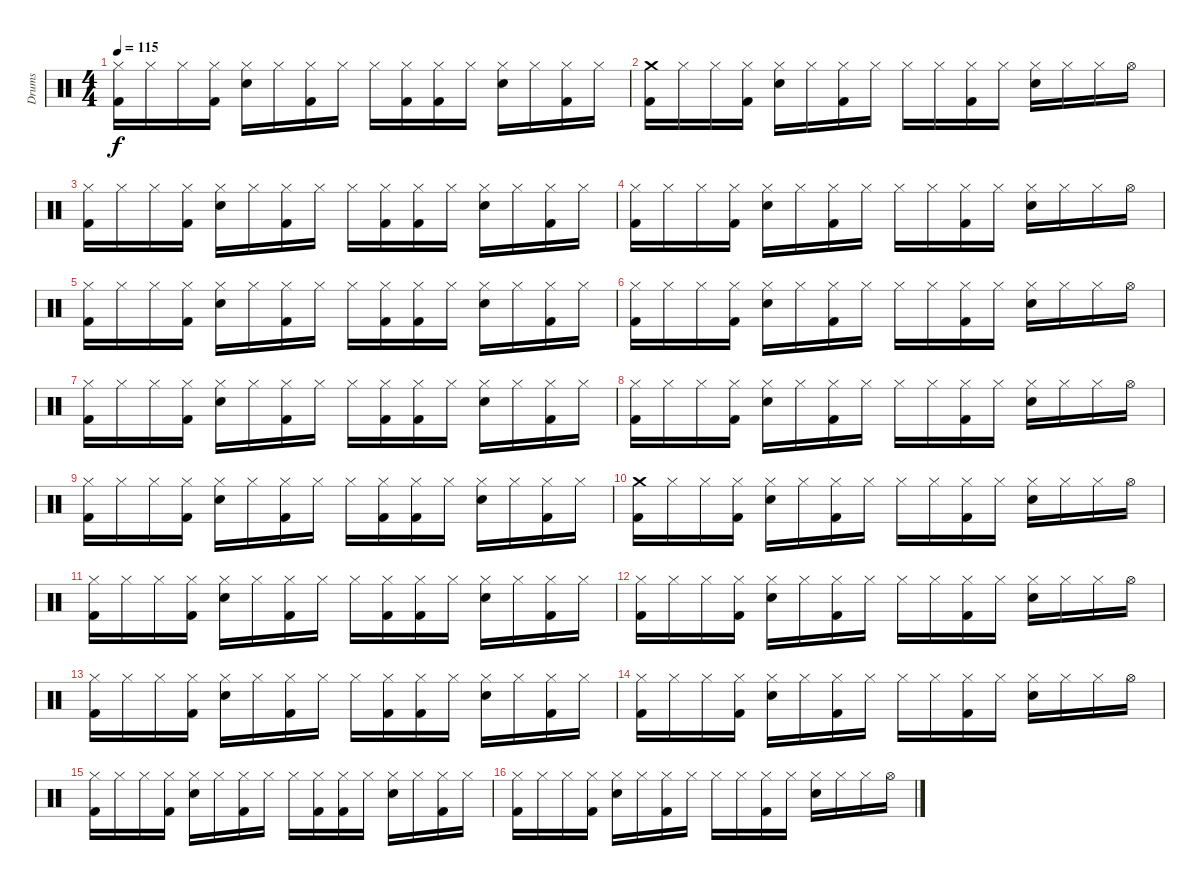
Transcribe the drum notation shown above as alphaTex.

\track ("Drums" "Drums") {instrument percussion}
\staff {score}
\articulation defaults
\ts (4 4)
\tempo 115
\clef neutral
\ks c
("Hi-Hat (closed)" "Kick (hit) 2").16{dy f} "Hi-Hat (closed)".16 "Hi-Hat (closed)".16 ("Hi-Hat (closed)" "Kick (hit) 2").16 ("Hi-Hat (closed)" "Electric Snare (hit)").16 "Hi-Hat (closed)".16 ("Hi-Hat (closed)" "Kick (hit) 2").16 "Hi-Hat (closed)".16 "Hi-Hat (closed)".16 ("Hi-Hat (closed)" "Kick (hit) 2").16 ("Hi-Hat (closed)" "Kick (hit) 2").16 "Hi-Hat (closed)".16 ("Hi-Hat (closed)" "Electric Snare (hit)").16 "Hi-Hat (closed)".16 ("Hi-Hat (closed)" "Kick (hit) 2").16 "Hi-Hat (closed)".16 |
("Crash medium (hit)" "Kick (hit) 2").16 "Hi-Hat (closed)".16 "Hi-Hat (closed)".16 ("Hi-Hat (closed)" "Kick (hit) 2").16 ("Hi-Hat (closed)" "Electric Snare (hit)").16 "Hi-Hat (closed)".16 ("Hi-Hat (closed)" "Kick (hit) 2").16 "Hi-Hat (closed)".16 "Hi-Hat (closed)".16 "Hi-Hat (closed)".16 ("Hi-Hat (closed)" "Kick (hit) 2").16 "Hi-Hat (closed)".16 ("Hi-Hat (closed)" "Electric Snare (hit)").16 "Hi-Hat (closed)".16 "Hi-Hat (closed)".16 "Hi-Hat (open)".16 |
("Hi-Hat (closed)" "Kick (hit) 2").16 "Hi-Hat (closed)".16 "Hi-Hat (closed)".16 ("Hi-Hat (closed)" "Kick (hit) 2").16 ("Hi-Hat (closed)" "Electric Snare (hit)").16 "Hi-Hat (closed)".16 ("Hi-Hat (closed)" "Kick (hit) 2").16 "Hi-Hat (closed)".16 "Hi-Hat (closed)".16 ("Hi-Hat (closed)" "Kick (hit) 2").16 ("Hi-Hat (closed)" "Kick (hit) 2").16 "Hi-Hat (closed)".16 ("Hi-Hat (closed)" "Electric Snare (hit)").16 "Hi-Hat (closed)".16 ("Hi-Hat (closed)" "Kick (hit) 2").16 "Hi-Hat (closed)".16 |
("Hi-Hat (closed)" "Kick (hit) 2").16 "Hi-Hat (closed)".16 "Hi-Hat (closed)".16 ("Hi-Hat (closed)" "Kick (hit) 2").16 ("Hi-Hat (closed)" "Electric Snare (hit)").16 "Hi-Hat (closed)".16 ("Hi-Hat (closed)" "Kick (hit) 2").16 "Hi-Hat (closed)".16 "Hi-Hat (closed)".16 "Hi-Hat (closed)".16 ("Hi-Hat (closed)" "Kick (hit) 2").16 "Hi-Hat (closed)".16 ("Hi-Hat (closed)" "Electric Snare (hit)").16 "Hi-Hat (closed)".16 "Hi-Hat (closed)".16 "Hi-Hat (open)".16 |
("Hi-Hat (closed)" "Kick (hit) 2").16 "Hi-Hat (closed)".16 "Hi-Hat (closed)".16 ("Hi-Hat (closed)" "Kick (hit) 2").16 ("Hi-Hat (closed)" "Electric Snare (hit)").16 "Hi-Hat (closed)".16 ("Hi-Hat (closed)" "Kick (hit) 2").16 "Hi-Hat (closed)".16 "Hi-Hat (closed)".16 ("Hi-Hat (closed)" "Kick (hit) 2").16 ("Hi-Hat (closed)" "Kick (hit) 2").16 "Hi-Hat (closed)".16 ("Hi-Hat (closed)" "Electric Snare (hit)").16 "Hi-Hat (closed)".16 ("Hi-Hat (closed)" "Kick (hit) 2").16 "Hi-Hat (closed)".16 |
("Hi-Hat (closed)" "Kick (hit) 2").16 "Hi-Hat (closed)".16 "Hi-Hat (closed)".16 ("Hi-Hat (closed)" "Kick (hit) 2").16 ("Hi-Hat (closed)" "Electric Snare (hit)").16 "Hi-Hat (closed)".16 ("Hi-Hat (closed)" "Kick (hit) 2").16 "Hi-Hat (closed)".16 "Hi-Hat (closed)".16 "Hi-Hat (closed)".16 ("Hi-Hat (closed)" "Kick (hit) 2").16 "Hi-Hat (closed)".16 ("Hi-Hat (closed)" "Electric Snare (hit)").16 "Hi-Hat (closed)".16 "Hi-Hat (closed)".16 "Hi-Hat (open)".16 |
("Hi-Hat (closed)" "Kick (hit) 2").16 "Hi-Hat (closed)".16 "Hi-Hat (closed)".16 ("Hi-Hat (closed)" "Kick (hit) 2").16 ("Hi-Hat (closed)" "Electric Snare (hit)").16 "Hi-Hat (closed)".16 ("Hi-Hat (closed)" "Kick (hit) 2").16 "Hi-Hat (closed)".16 "Hi-Hat (closed)".16 ("Hi-Hat (closed)" "Kick (hit) 2").16 ("Hi-Hat (closed)" "Kick (hit) 2").16 "Hi-Hat (closed)".16 ("Hi-Hat (closed)" "Electric Snare (hit)").16 "Hi-Hat (closed)".16 ("Hi-Hat (closed)" "Kick (hit) 2").16 "Hi-Hat (closed)".16 |
("Hi-Hat (closed)" "Kick (hit) 2").16 "Hi-Hat (closed)".16 "Hi-Hat (closed)".16 ("Hi-Hat (closed)" "Kick (hit) 2").16 ("Hi-Hat (closed)" "Electric Snare (hit)").16 "Hi-Hat (closed)".16 ("Hi-Hat (closed)" "Kick (hit) 2").16 "Hi-Hat (closed)".16 "Hi-Hat (closed)".16 "Hi-Hat (closed)".16 ("Hi-Hat (closed)" "Kick (hit) 2").16 "Hi-Hat (closed)".16 ("Hi-Hat (closed)" "Electric Snare (hit)").16 "Hi-Hat (closed)".16 "Hi-Hat (closed)".16 "Hi-Hat (open)".16 |
("Hi-Hat (closed)" "Kick (hit) 2").16 "Hi-Hat (closed)".16 "Hi-Hat (closed)".16 ("Hi-Hat (closed)" "Kick (hit) 2").16 ("Hi-Hat (closed)" "Electric Snare (hit)").16 "Hi-Hat (closed)".16 ("Hi-Hat (closed)" "Kick (hit) 2").16 "Hi-Hat (closed)".16 "Hi-Hat (closed)".16 ("Hi-Hat (closed)" "Kick (hit) 2").16 ("Hi-Hat (closed)" "Kick (hit) 2").16 "Hi-Hat (closed)".16 ("Hi-Hat (closed)" "Electric Snare (hit)").16 "Hi-Hat (closed)".16 ("Hi-Hat (closed)" "Kick (hit) 2").16 "Hi-Hat (closed)".16 |
("Crash medium (hit)" "Kick (hit) 2").16 "Hi-Hat (closed)".16 "Hi-Hat (closed)".16 ("Hi-Hat (closed)" "Kick (hit) 2").16 ("Hi-Hat (closed)" "Electric Snare (hit)").16 "Hi-Hat (closed)".16 ("Hi-Hat (closed)" "Kick (hit) 2").16 "Hi-Hat (closed)".16 "Hi-Hat (closed)".16 "Hi-Hat (closed)".16 ("Hi-Hat (closed)" "Kick (hit) 2").16 "Hi-Hat (closed)".16 ("Hi-Hat (closed)" "Electric Snare (hit)").16 "Hi-Hat (closed)".16 "Hi-Hat (closed)".16 "Hi-Hat (open)".16 |
("Hi-Hat (closed)" "Kick (hit) 2").16 "Hi-Hat (closed)".16 "Hi-Hat (closed)".16 ("Hi-Hat (closed)" "Kick (hit) 2").16 ("Hi-Hat (closed)" "Electric Snare (hit)").16 "Hi-Hat (closed)".16 ("Hi-Hat (closed)" "Kick (hit) 2").16 "Hi-Hat (closed)".16 "Hi-Hat (closed)".16 ("Hi-Hat (closed)" "Kick (hit) 2").16 ("Hi-Hat (closed)" "Kick (hit) 2").16 "Hi-Hat (closed)".16 ("Hi-Hat (closed)" "Electric Snare (hit)").16 "Hi-Hat (closed)".16 ("Hi-Hat (closed)" "Kick (hit) 2").16 "Hi-Hat (closed)".16 |
("Hi-Hat (closed)" "Kick (hit) 2").16 "Hi-Hat (closed)".16 "Hi-Hat (closed)".16 ("Hi-Hat (closed)" "Kick (hit) 2").16 ("Hi-Hat (closed)" "Electric Snare (hit)").16 "Hi-Hat (closed)".16 ("Hi-Hat (closed)" "Kick (hit) 2").16 "Hi-Hat (closed)".16 "Hi-Hat (closed)".16 "Hi-Hat (closed)".16 ("Hi-Hat (closed)" "Kick (hit) 2").16 "Hi-Hat (closed)".16 ("Hi-Hat (closed)" "Electric Snare (hit)").16 "Hi-Hat (closed)".16 "Hi-Hat (closed)".16 "Hi-Hat (open)".16 |
("Hi-Hat (closed)" "Kick (hit) 2").16 "Hi-Hat (closed)".16 "Hi-Hat (closed)".16 ("Hi-Hat (closed)" "Kick (hit) 2").16 ("Hi-Hat (closed)" "Electric Snare (hit)").16 "Hi-Hat (closed)".16 ("Hi-Hat (closed)" "Kick (hit) 2").16 "Hi-Hat (closed)".16 "Hi-Hat (closed)".16 ("Hi-Hat (closed)" "Kick (hit) 2").16 ("Hi-Hat (closed)" "Kick (hit) 2").16 "Hi-Hat (closed)".16 ("Hi-Hat (closed)" "Electric Snare (hit)").16 "Hi-Hat (closed)".16 ("Hi-Hat (closed)" "Kick (hit) 2").16 "Hi-Hat (closed)".16 |
("Hi-Hat (closed)" "Kick (hit) 2").16 "Hi-Hat (closed)".16 "Hi-Hat (closed)".16 ("Hi-Hat (closed)" "Kick (hit) 2").16 ("Hi-Hat (closed)" "Electric Snare (hit)").16 "Hi-Hat (closed)".16 ("Hi-Hat (closed)" "Kick (hit) 2").16 "Hi-Hat (closed)".16 "Hi-Hat (closed)".16 "Hi-Hat (closed)".16 ("Hi-Hat (closed)" "Kick (hit) 2").16 "Hi-Hat (closed)".16 ("Hi-Hat (closed)" "Electric Snare (hit)").16 "Hi-Hat (closed)".16 "Hi-Hat (closed)".16 "Hi-Hat (open)".16 |
("Hi-Hat (closed)" "Kick (hit) 2").16 "Hi-Hat (closed)".16 "Hi-Hat (closed)".16 ("Hi-Hat (closed)" "Kick (hit) 2").16 ("Hi-Hat (closed)" "Electric Snare (hit)").16 "Hi-Hat (closed)".16 ("Hi-Hat (closed)" "Kick (hit) 2").16 "Hi-Hat (closed)".16 "Hi-Hat (closed)".16 ("Hi-Hat (closed)" "Kick (hit) 2").16 ("Hi-Hat (closed)" "Kick (hit) 2").16 "Hi-Hat (closed)".16 ("Hi-Hat (closed)" "Electric Snare (hit)").16 "Hi-Hat (closed)".16 ("Hi-Hat (closed)" "Kick (hit) 2").16 "Hi-Hat (closed)".16 |
("Hi-Hat (closed)" "Kick (hit) 2").16 "Hi-Hat (closed)".16 "Hi-Hat (closed)".16 ("Hi-Hat (closed)" "Kick (hit) 2").16 ("Hi-Hat (closed)" "Electric Snare (hit)").16 "Hi-Hat (closed)".16 ("Hi-Hat (closed)" "Kick (hit) 2").16 "Hi-Hat (closed)".16 "Hi-Hat (closed)".16 "Hi-Hat (closed)".16 ("Hi-Hat (closed)" "Kick (hit) 2").16 "Hi-Hat (closed)".16 ("Hi-Hat (closed)" "Electric Snare (hit)").16 "Hi-Hat (closed)".16 "Hi-Hat (closed)".16 "Hi-Hat (open)".16
